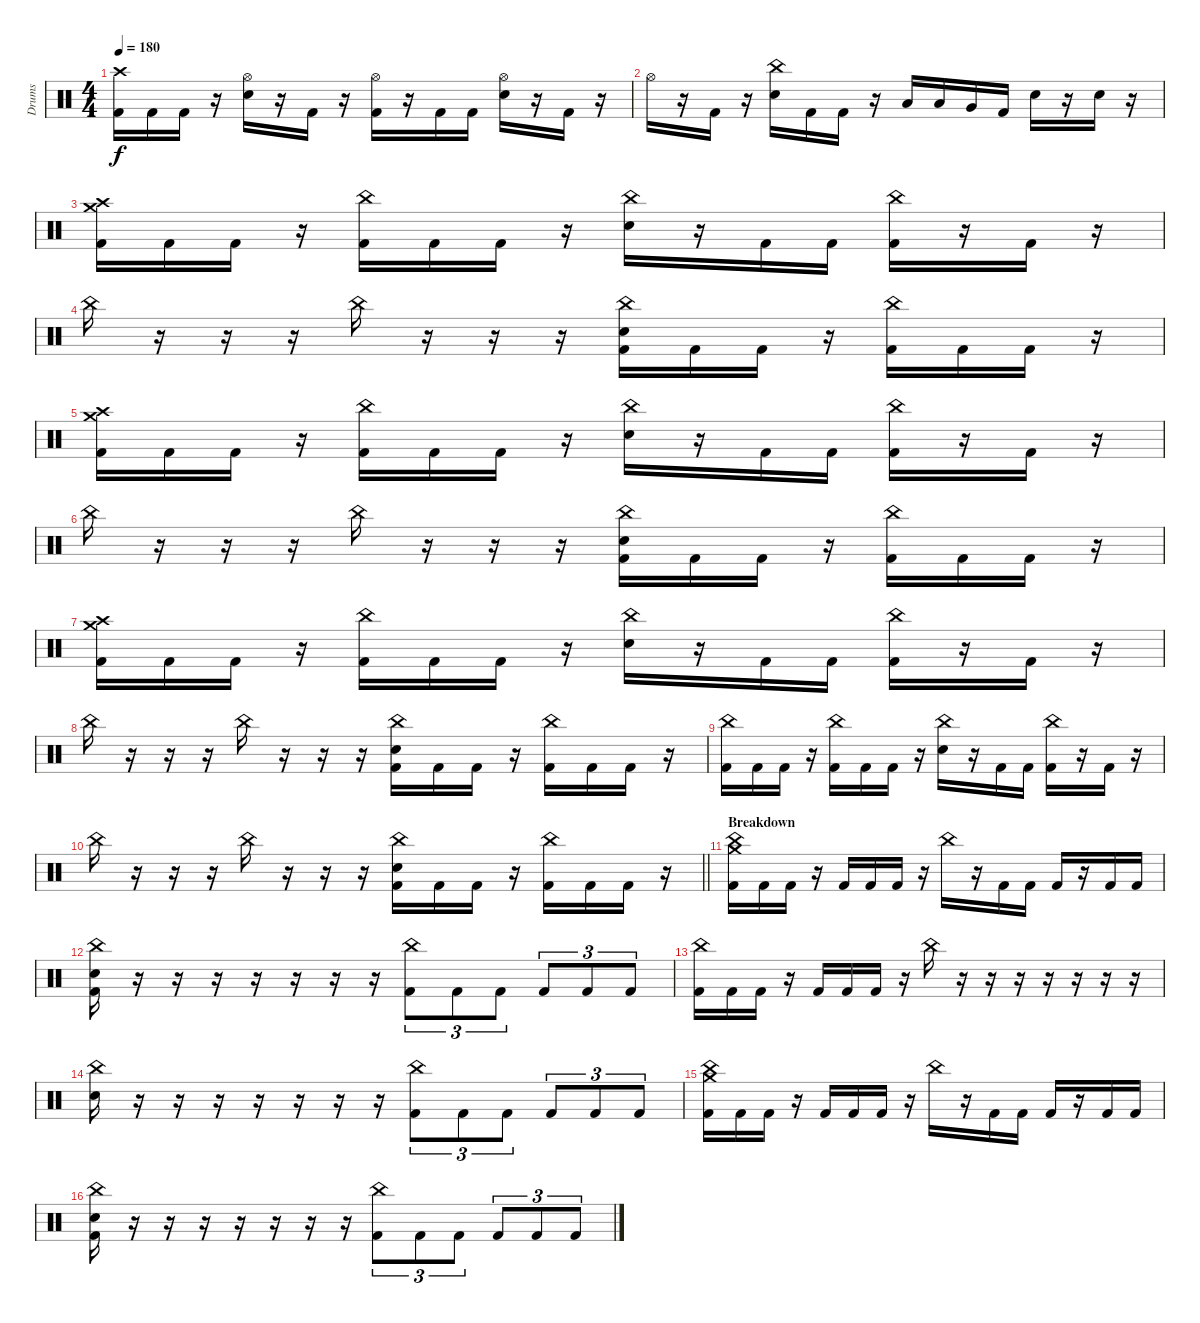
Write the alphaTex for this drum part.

\track ("Drums" "Drums") {instrument percussion}
\staff {score}
\articulation defaults
\ts (4 4)
\tempo 180
\clef neutral
\ks c
("Crash high (hit)" "Kick (hit) 2").16{dy f} "Kick (hit) 2".16 "Kick (hit) 2".16 r.16 ("Hi-Hat (open)" "Electric Snare (hit)").16 r.16 "Kick (hit) 2".16 r.16 ("Hi-Hat (open)" "Kick (hit) 2").16 r.16 "Kick (hit) 2".16 "Kick (hit) 2".16 ("Hi-Hat (open)" "Electric Snare (hit)").16 r.16 "Kick (hit) 2".16 r.16 |
"Hi-Hat (open)".16 r.16 "Kick (hit) 2".16 r.16 ("China (hit)" "Electric Snare (hit)").16 "Kick (hit) 2".16 "Kick (hit) 2".16 r.16 "Low Floor Tom (hit)".16 "Low Floor Tom (hit)".16 "Very Low Tom (hit)".16 "Kick (hit) 2".16 "Electric Snare (hit)".16 r.16 "Electric Snare (hit)".16 r.16 |
("Crash medium (hit)" "Crash high (hit)" "Kick (hit) 2").16 "Kick (hit) 2".16 "Kick (hit) 2".16 r.16 ("China (hit)" "Kick (hit) 2").16 "Kick (hit) 2".16 "Kick (hit) 2".16 r.16 ("China (hit)" "Electric Snare (hit)").16 r.16 "Kick (hit) 2".16 "Kick (hit) 2".16 ("China (hit)" "Kick (hit) 2").16 r.16 "Kick (hit) 2".16 r.16 |
"China (hit)".16 r.16 r.16 r.16 "China (hit)".16 r.16 r.16 r.16 ("China (hit)" "Electric Snare (hit)" "Kick (hit) 2").16 "Kick (hit) 2".16 "Kick (hit) 2".16 r.16 ("China (hit)" "Kick (hit) 2").16 "Kick (hit) 2".16 "Kick (hit) 2".16 r.16 |
("Crash medium (hit)" "Crash high (hit)" "Kick (hit) 2").16 "Kick (hit) 2".16 "Kick (hit) 2".16 r.16 ("China (hit)" "Kick (hit) 2").16 "Kick (hit) 2".16 "Kick (hit) 2".16 r.16 ("China (hit)" "Electric Snare (hit)").16 r.16 "Kick (hit) 2".16 "Kick (hit) 2".16 ("China (hit)" "Kick (hit) 2").16 r.16 "Kick (hit) 2".16 r.16 |
"China (hit)".16 r.16 r.16 r.16 "China (hit)".16 r.16 r.16 r.16 ("China (hit)" "Electric Snare (hit)" "Kick (hit) 2").16 "Kick (hit) 2".16 "Kick (hit) 2".16 r.16 ("China (hit)" "Kick (hit) 2").16 "Kick (hit) 2".16 "Kick (hit) 2".16 r.16 |
("Crash medium (hit)" "Crash high (hit)" "Kick (hit) 2").16 "Kick (hit) 2".16 "Kick (hit) 2".16 r.16 ("China (hit)" "Kick (hit) 2").16 "Kick (hit) 2".16 "Kick (hit) 2".16 r.16 ("China (hit)" "Electric Snare (hit)").16 r.16 "Kick (hit) 2".16 "Kick (hit) 2".16 ("China (hit)" "Kick (hit) 2").16 r.16 "Kick (hit) 2".16 r.16 |
"China (hit)".16 r.16 r.16 r.16 "China (hit)".16 r.16 r.16 r.16 ("China (hit)" "Electric Snare (hit)" "Kick (hit) 2").16 "Kick (hit) 2".16 "Kick (hit) 2".16 r.16 ("China (hit)" "Kick (hit) 2").16 "Kick (hit) 2".16 "Kick (hit) 2".16 r.16 |
("China (hit)" "Kick (hit) 2").16 "Kick (hit) 2".16 "Kick (hit) 2".16 r.16 ("China (hit)" "Kick (hit) 2").16 "Kick (hit) 2".16 "Kick (hit) 2".16 r.16 ("China (hit)" "Electric Snare (hit)").16 r.16 "Kick (hit) 2".16 "Kick (hit) 2".16 ("China (hit)" "Kick (hit) 2").16 r.16 "Kick (hit) 2".16 r.16 |
\barLineRight lightlight "China (hit)".16
r.16 r.16 r.16 "China (hit)".16 r.16 r.16 r.16 ("China (hit)" "Electric Snare (hit)" "Kick (hit) 2").16 "Kick (hit) 2".16 "Kick (hit) 2".16 r.16 ("China (hit)" "Kick (hit) 2").16 "Kick (hit) 2".16 "Kick (hit) 2".16 r.16 |
\section ("" "Breakdown")
("Crash medium (hit)" "China (hit)" "Kick (hit) 2").16 "Kick (hit) 2".16 "Kick (hit) 2".16 r.16 "Kick (hit) 2".16 "Kick (hit) 2".16 "Kick (hit) 2".16 r.16 "China (hit)".16 r.16 "Kick (hit) 2".16 "Kick (hit) 2".16 "Kick (hit) 2".16 r.16 "Kick (hit) 2".16 "Kick (hit) 2".16 |
("China (hit)" "Electric Snare (hit)" "Kick (hit) 2").16 r.16 r.16 r.16 r.16 r.16 r.16 r.16 ("China (hit)" "Kick (hit) 2").8{tu (3 2)} "Kick (hit) 2".8{tu (3 2)} "Kick (hit) 2".8{tu (3 2)} "Kick (hit) 2".8{tu (3 2)} "Kick (hit) 2".8{tu (3 2)} "Kick (hit) 2".8{tu (3 2)} |
("China (hit)" "Kick (hit) 2").16 "Kick (hit) 2".16 "Kick (hit) 2".16 r.16 "Kick (hit) 2".16 "Kick (hit) 2".16 "Kick (hit) 2".16 r.16 "China (hit)".16 r.16 r.16 r.16 r.16 r.16 r.16 r.16 |
("China (hit)" "Electric Snare (hit)").16 r.16 r.16 r.16 r.16 r.16 r.16 r.16 ("China (hit)" "Kick (hit) 2").8{tu (3 2)} "Kick (hit) 2".8{tu (3 2)} "Kick (hit) 2".8{tu (3 2)} "Kick (hit) 2".8{tu (3 2)} "Kick (hit) 2".8{tu (3 2)} "Kick (hit) 2".8{tu (3 2)} |
("Crash medium (hit)" "China (hit)" "Kick (hit) 2").16 "Kick (hit) 2".16 "Kick (hit) 2".16 r.16 "Kick (hit) 2".16 "Kick (hit) 2".16 "Kick (hit) 2".16 r.16 "China (hit)".16 r.16 "Kick (hit) 2".16 "Kick (hit) 2".16 "Kick (hit) 2".16 r.16 "Kick (hit) 2".16 "Kick (hit) 2".16 |
("China (hit)" "Electric Snare (hit)" "Kick (hit) 2").16 r.16 r.16 r.16 r.16 r.16 r.16 r.16 ("China (hit)" "Kick (hit) 2").8{tu (3 2)} "Kick (hit) 2".8{tu (3 2)} "Kick (hit) 2".8{tu (3 2)} "Kick (hit) 2".8{tu (3 2)} "Kick (hit) 2".8{tu (3 2)} "Kick (hit) 2".8{tu (3 2)}
